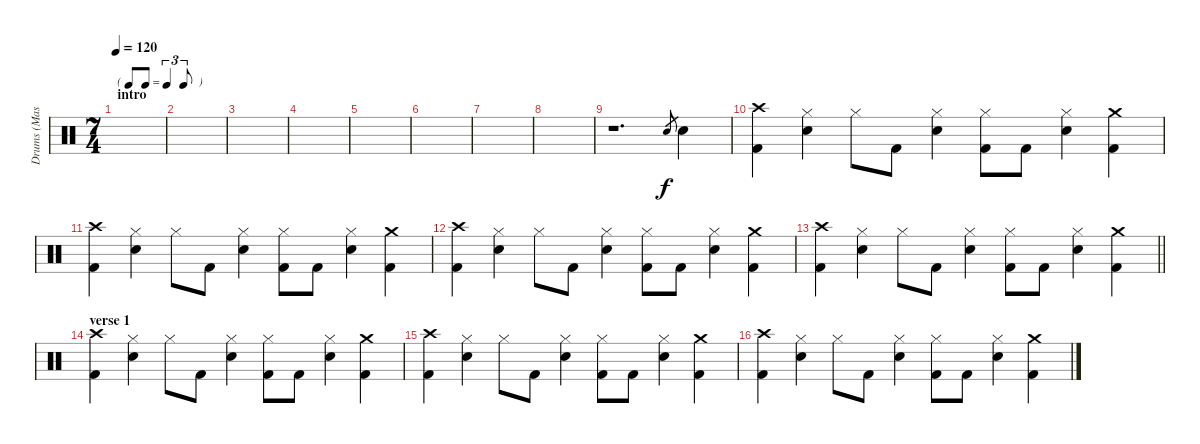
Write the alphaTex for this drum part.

\track ("Drums (Mason)" "Drums (Mas") {instrument percussion}
\staff {score}
\articulation defaults
\ts (7 4)
\tf triplet8th
\section ("" "intro")
\tempo 120
\clef neutral
\ks c
|
|
|
|
|
|
|
|
r.1{d} "Electric Snare (hit)".8{gr} "Electric Snare (hit)".4 |
("Crash high (hit)" "Kick (hit) 2").4 ("Hi-Hat (closed)" "Electric Snare (hit)").4 "Hi-Hat (closed)".8 "Kick (hit) 2".8 ("Hi-Hat (closed)" "Electric Snare (hit)").4 ("Hi-Hat (closed)" "Kick (hit) 2").8 "Kick (hit) 2".8 ("Hi-Hat (closed)" "Electric Snare (hit)").4 ("Crash medium (hit)" "Kick (hit) 2").4 |
("Crash high (hit)" "Kick (hit) 2").4 ("Hi-Hat (closed)" "Electric Snare (hit)").4 "Hi-Hat (closed)".8 "Kick (hit) 2".8 ("Hi-Hat (closed)" "Electric Snare (hit)").4 ("Hi-Hat (closed)" "Kick (hit) 2").8 "Kick (hit) 2".8 ("Hi-Hat (closed)" "Electric Snare (hit)").4 ("Crash medium (hit)" "Kick (hit) 2").4 |
("Crash high (hit)" "Kick (hit) 2").4 ("Hi-Hat (closed)" "Electric Snare (hit)").4 "Hi-Hat (closed)".8 "Kick (hit) 2".8 ("Hi-Hat (closed)" "Electric Snare (hit)").4 ("Hi-Hat (closed)" "Kick (hit) 2").8 "Kick (hit) 2".8 ("Hi-Hat (closed)" "Electric Snare (hit)").4 ("Crash medium (hit)" "Kick (hit) 2").4 |
\barLineRight lightlight
("Crash high (hit)" "Kick (hit) 2").4 ("Hi-Hat (closed)" "Electric Snare (hit)").4 "Hi-Hat (closed)".8 "Kick (hit) 2".8 ("Hi-Hat (closed)" "Electric Snare (hit)").4 ("Hi-Hat (closed)" "Kick (hit) 2").8 "Kick (hit) 2".8 ("Hi-Hat (closed)" "Electric Snare (hit)").4 ("Crash medium (hit)" "Kick (hit) 2").4 |
\section ("" "verse 1")
("Crash high (hit)" "Kick (hit) 2").4 ("Hi-Hat (closed)" "Electric Snare (hit)").4 "Hi-Hat (closed)".8 "Kick (hit) 2".8 ("Hi-Hat (closed)" "Electric Snare (hit)").4 ("Hi-Hat (closed)" "Kick (hit) 2").8 "Kick (hit) 2".8 ("Hi-Hat (closed)" "Electric Snare (hit)").4 ("Crash medium (hit)" "Kick (hit) 2").4 |
("Crash high (hit)" "Kick (hit) 2").4 ("Hi-Hat (closed)" "Electric Snare (hit)").4 "Hi-Hat (closed)".8 "Kick (hit) 2".8 ("Hi-Hat (closed)" "Electric Snare (hit)").4 ("Hi-Hat (closed)" "Kick (hit) 2").8 "Kick (hit) 2".8 ("Hi-Hat (closed)" "Electric Snare (hit)").4 ("Crash medium (hit)" "Kick (hit) 2").4 |
("Crash high (hit)" "Kick (hit) 2").4 ("Hi-Hat (closed)" "Electric Snare (hit)").4 "Hi-Hat (closed)".8 "Kick (hit) 2".8 ("Hi-Hat (closed)" "Electric Snare (hit)").4 ("Hi-Hat (closed)" "Kick (hit) 2").8 "Kick (hit) 2".8 ("Hi-Hat (closed)" "Electric Snare (hit)").4 ("Crash medium (hit)" "Kick (hit) 2").4
